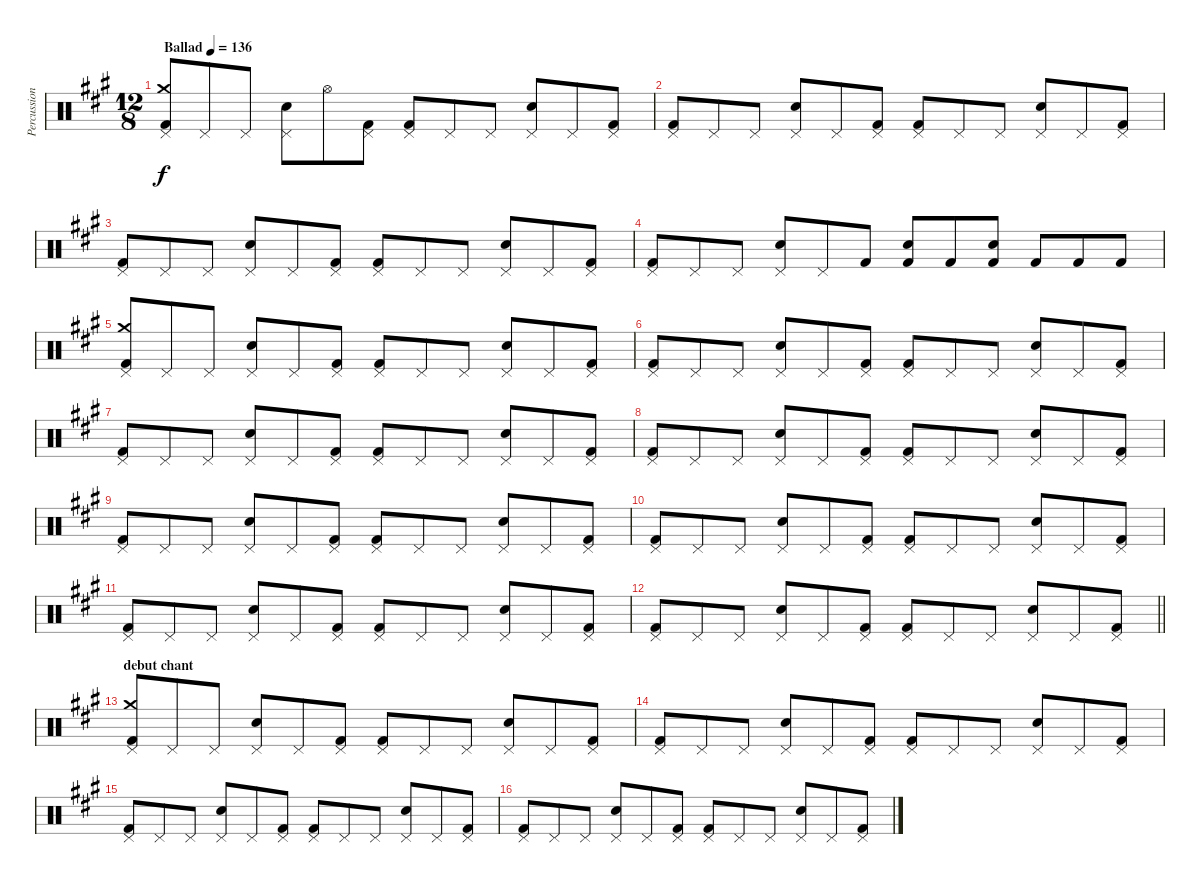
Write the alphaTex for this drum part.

\track ("Percussions" "Percussion") {instrument percussion}
\staff {score}
\articulation defaults
\ts (12 8)
\tempo (136 "Ballad")
\clef neutral
\ks a
("Pedal Hi-Hat (hit)" "Crash medium (hit)" "Kick (hit) 2").8{dy f} "Pedal Hi-Hat (hit)".8 "Pedal Hi-Hat (hit)".8 ("Pedal Hi-Hat (hit)" "Snare (hit) 2").8 "Hi-Hat (open)".8 ("Pedal Hi-Hat (hit)" "Kick (hit) 2").8 ("Pedal Hi-Hat (hit)" "Kick (hit) 2").8 "Pedal Hi-Hat (hit)".8 "Pedal Hi-Hat (hit)".8 ("Pedal Hi-Hat (hit)" "Snare (hit) 2").8 "Pedal Hi-Hat (hit)".8 ("Pedal Hi-Hat (hit)" "Kick (hit) 2").8 |
("Pedal Hi-Hat (hit)" "Kick (hit) 2").8 "Pedal Hi-Hat (hit)".8 "Pedal Hi-Hat (hit)".8 ("Pedal Hi-Hat (hit)" "Snare (hit) 2").8 "Pedal Hi-Hat (hit)".8 ("Pedal Hi-Hat (hit)" "Kick (hit) 2").8 ("Pedal Hi-Hat (hit)" "Kick (hit) 2").8 "Pedal Hi-Hat (hit)".8 "Pedal Hi-Hat (hit)".8 ("Pedal Hi-Hat (hit)" "Snare (hit) 2").8 "Pedal Hi-Hat (hit)".8 ("Pedal Hi-Hat (hit)" "Kick (hit) 2").8 |
("Pedal Hi-Hat (hit)" "Kick (hit) 2").8 "Pedal Hi-Hat (hit)".8 "Pedal Hi-Hat (hit)".8 ("Pedal Hi-Hat (hit)" "Snare (hit) 2").8 "Pedal Hi-Hat (hit)".8 ("Pedal Hi-Hat (hit)" "Kick (hit) 2").8 ("Pedal Hi-Hat (hit)" "Kick (hit) 2").8 "Pedal Hi-Hat (hit)".8 "Pedal Hi-Hat (hit)".8 ("Pedal Hi-Hat (hit)" "Snare (hit) 2").8 "Pedal Hi-Hat (hit)".8 ("Pedal Hi-Hat (hit)" "Kick (hit) 2").8 |
("Pedal Hi-Hat (hit)" "Kick (hit) 2").8 "Pedal Hi-Hat (hit)".8 "Pedal Hi-Hat (hit)".8 ("Pedal Hi-Hat (hit)" "Snare (hit) 2").8 "Pedal Hi-Hat (hit)".8 "Kick (hit) 2".8 ("Snare (hit) 2" "Kick (hit) 2").8 "Kick (hit) 2".8 ("Snare (hit) 2" "Kick (hit) 2").8 "Kick (hit) 2".8 "Kick (hit) 2".8 "Kick (hit) 2".8 |
("Pedal Hi-Hat (hit)" "Crash medium (hit)" "Kick (hit) 2").8 "Pedal Hi-Hat (hit)".8 "Pedal Hi-Hat (hit)".8 ("Pedal Hi-Hat (hit)" "Snare (hit) 2").8 "Pedal Hi-Hat (hit)".8 ("Pedal Hi-Hat (hit)" "Kick (hit) 2").8 ("Pedal Hi-Hat (hit)" "Kick (hit) 2").8 "Pedal Hi-Hat (hit)".8 "Pedal Hi-Hat (hit)".8 ("Pedal Hi-Hat (hit)" "Snare (hit) 2").8 "Pedal Hi-Hat (hit)".8 ("Pedal Hi-Hat (hit)" "Kick (hit) 2").8 |
("Pedal Hi-Hat (hit)" "Kick (hit) 2").8 "Pedal Hi-Hat (hit)".8 "Pedal Hi-Hat (hit)".8 ("Pedal Hi-Hat (hit)" "Snare (hit) 2").8 "Pedal Hi-Hat (hit)".8 ("Pedal Hi-Hat (hit)" "Kick (hit) 2").8 ("Pedal Hi-Hat (hit)" "Kick (hit) 2").8 "Pedal Hi-Hat (hit)".8 "Pedal Hi-Hat (hit)".8 ("Pedal Hi-Hat (hit)" "Snare (hit) 2").8 "Pedal Hi-Hat (hit)".8 ("Pedal Hi-Hat (hit)" "Kick (hit) 2").8 |
("Pedal Hi-Hat (hit)" "Kick (hit) 2").8 "Pedal Hi-Hat (hit)".8 "Pedal Hi-Hat (hit)".8 ("Pedal Hi-Hat (hit)" "Snare (hit) 2").8 "Pedal Hi-Hat (hit)".8 ("Pedal Hi-Hat (hit)" "Kick (hit) 2").8 ("Pedal Hi-Hat (hit)" "Kick (hit) 2").8 "Pedal Hi-Hat (hit)".8 "Pedal Hi-Hat (hit)".8 ("Pedal Hi-Hat (hit)" "Snare (hit) 2").8 "Pedal Hi-Hat (hit)".8 ("Pedal Hi-Hat (hit)" "Kick (hit) 2").8 |
("Pedal Hi-Hat (hit)" "Kick (hit) 2").8 "Pedal Hi-Hat (hit)".8 "Pedal Hi-Hat (hit)".8 ("Pedal Hi-Hat (hit)" "Snare (hit) 2").8 "Pedal Hi-Hat (hit)".8 ("Pedal Hi-Hat (hit)" "Kick (hit) 2").8 ("Pedal Hi-Hat (hit)" "Kick (hit) 2").8 "Pedal Hi-Hat (hit)".8 "Pedal Hi-Hat (hit)".8 ("Pedal Hi-Hat (hit)" "Snare (hit) 2").8 "Pedal Hi-Hat (hit)".8 ("Pedal Hi-Hat (hit)" "Kick (hit) 2").8 |
("Pedal Hi-Hat (hit)" "Kick (hit) 2").8 "Pedal Hi-Hat (hit)".8 "Pedal Hi-Hat (hit)".8 ("Pedal Hi-Hat (hit)" "Snare (hit) 2").8 "Pedal Hi-Hat (hit)".8 ("Pedal Hi-Hat (hit)" "Kick (hit) 2").8 ("Pedal Hi-Hat (hit)" "Kick (hit) 2").8 "Pedal Hi-Hat (hit)".8 "Pedal Hi-Hat (hit)".8 ("Pedal Hi-Hat (hit)" "Snare (hit) 2").8 "Pedal Hi-Hat (hit)".8 ("Pedal Hi-Hat (hit)" "Kick (hit) 2").8 |
("Pedal Hi-Hat (hit)" "Kick (hit) 2").8 "Pedal Hi-Hat (hit)".8 "Pedal Hi-Hat (hit)".8 ("Pedal Hi-Hat (hit)" "Snare (hit) 2").8 "Pedal Hi-Hat (hit)".8 ("Pedal Hi-Hat (hit)" "Kick (hit) 2").8 ("Pedal Hi-Hat (hit)" "Kick (hit) 2").8 "Pedal Hi-Hat (hit)".8 "Pedal Hi-Hat (hit)".8 ("Pedal Hi-Hat (hit)" "Snare (hit) 2").8 "Pedal Hi-Hat (hit)".8 ("Pedal Hi-Hat (hit)" "Kick (hit) 2").8 |
("Pedal Hi-Hat (hit)" "Kick (hit) 2").8 "Pedal Hi-Hat (hit)".8 "Pedal Hi-Hat (hit)".8 ("Pedal Hi-Hat (hit)" "Snare (hit) 2").8 "Pedal Hi-Hat (hit)".8 ("Pedal Hi-Hat (hit)" "Kick (hit) 2").8 ("Pedal Hi-Hat (hit)" "Kick (hit) 2").8 "Pedal Hi-Hat (hit)".8 "Pedal Hi-Hat (hit)".8 ("Pedal Hi-Hat (hit)" "Snare (hit) 2").8 "Pedal Hi-Hat (hit)".8 ("Pedal Hi-Hat (hit)" "Kick (hit) 2").8 |
\barLineRight lightlight
("Pedal Hi-Hat (hit)" "Kick (hit) 2").8 "Pedal Hi-Hat (hit)".8 "Pedal Hi-Hat (hit)".8 ("Pedal Hi-Hat (hit)" "Snare (hit) 2").8 "Pedal Hi-Hat (hit)".8 ("Pedal Hi-Hat (hit)" "Kick (hit) 2").8 ("Pedal Hi-Hat (hit)" "Kick (hit) 2").8 "Pedal Hi-Hat (hit)".8 "Pedal Hi-Hat (hit)".8 ("Pedal Hi-Hat (hit)" "Snare (hit) 2").8 "Pedal Hi-Hat (hit)".8 ("Pedal Hi-Hat (hit)" "Kick (hit) 2").8 |
\section ("" "debut chant")
("Pedal Hi-Hat (hit)" "Crash medium (hit)" "Kick (hit) 2").8 "Pedal Hi-Hat (hit)".8 "Pedal Hi-Hat (hit)".8 ("Pedal Hi-Hat (hit)" "Snare (hit) 2").8 "Pedal Hi-Hat (hit)".8 ("Pedal Hi-Hat (hit)" "Kick (hit) 2").8 ("Pedal Hi-Hat (hit)" "Kick (hit) 2").8 "Pedal Hi-Hat (hit)".8 "Pedal Hi-Hat (hit)".8 ("Pedal Hi-Hat (hit)" "Snare (hit) 2").8 "Pedal Hi-Hat (hit)".8 ("Pedal Hi-Hat (hit)" "Kick (hit) 2").8 |
("Pedal Hi-Hat (hit)" "Kick (hit) 2").8 "Pedal Hi-Hat (hit)".8 "Pedal Hi-Hat (hit)".8 ("Pedal Hi-Hat (hit)" "Snare (hit) 2").8 "Pedal Hi-Hat (hit)".8 ("Pedal Hi-Hat (hit)" "Kick (hit) 2").8 ("Pedal Hi-Hat (hit)" "Kick (hit) 2").8 "Pedal Hi-Hat (hit)".8 "Pedal Hi-Hat (hit)".8 ("Pedal Hi-Hat (hit)" "Snare (hit) 2").8 "Pedal Hi-Hat (hit)".8 ("Pedal Hi-Hat (hit)" "Kick (hit) 2").8 |
("Pedal Hi-Hat (hit)" "Kick (hit) 2").8 "Pedal Hi-Hat (hit)".8 "Pedal Hi-Hat (hit)".8 ("Pedal Hi-Hat (hit)" "Snare (hit) 2").8 "Pedal Hi-Hat (hit)".8 ("Pedal Hi-Hat (hit)" "Kick (hit) 2").8 ("Pedal Hi-Hat (hit)" "Kick (hit) 2").8 "Pedal Hi-Hat (hit)".8 "Pedal Hi-Hat (hit)".8 ("Pedal Hi-Hat (hit)" "Snare (hit) 2").8 "Pedal Hi-Hat (hit)".8 ("Pedal Hi-Hat (hit)" "Kick (hit) 2").8 |
("Pedal Hi-Hat (hit)" "Kick (hit) 2").8 "Pedal Hi-Hat (hit)".8 "Pedal Hi-Hat (hit)".8 ("Pedal Hi-Hat (hit)" "Snare (hit) 2").8 "Pedal Hi-Hat (hit)".8 ("Pedal Hi-Hat (hit)" "Kick (hit) 2").8 ("Pedal Hi-Hat (hit)" "Kick (hit) 2").8 "Pedal Hi-Hat (hit)".8 "Pedal Hi-Hat (hit)".8 ("Pedal Hi-Hat (hit)" "Snare (hit) 2").8 "Pedal Hi-Hat (hit)".8 ("Pedal Hi-Hat (hit)" "Kick (hit) 2").8
